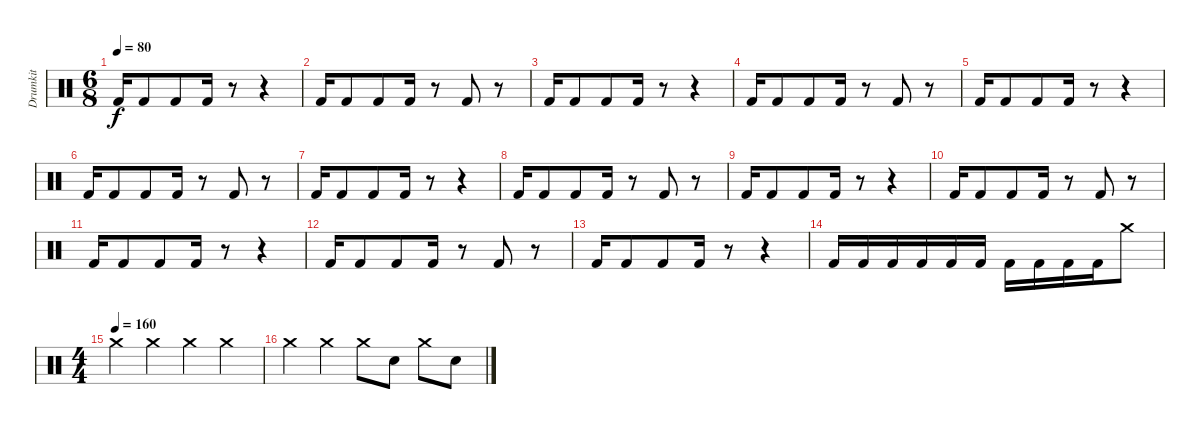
\track ("Drumkit" "Drumkit") {instrument percussion}
\staff {score}
\articulation defaults
\ts (6 8)
\tempo 80
\clef neutral
\ks c "Kick (hit) 2".16{dy f} "Kick (hit) 2".8 "Kick (hit) 2".8 "Kick (hit) 2".16
r.8 r.4 |
"Kick (hit) 2".16 "Kick (hit) 2".8 "Kick (hit) 2".8 "Kick (hit) 2".16 r.8 "Kick (hit) 2".8 r.8 |
"Kick (hit) 2".16 "Kick (hit) 2".8 "Kick (hit) 2".8 "Kick (hit) 2".16 r.8 r.4 |
"Kick (hit) 2".16 "Kick (hit) 2".8 "Kick (hit) 2".8 "Kick (hit) 2".16 r.8 "Kick (hit) 2".8 r.8 |
"Kick (hit) 2".16 "Kick (hit) 2".8 "Kick (hit) 2".8 "Kick (hit) 2".16 r.8 r.4 |
"Kick (hit) 2".16 "Kick (hit) 2".8 "Kick (hit) 2".8 "Kick (hit) 2".16 r.8 "Kick (hit) 2".8 r.8 |
"Kick (hit) 2".16 "Kick (hit) 2".8 "Kick (hit) 2".8 "Kick (hit) 2".16 r.8 r.4 |
"Kick (hit) 2".16 "Kick (hit) 2".8 "Kick (hit) 2".8 "Kick (hit) 2".16 r.8 "Kick (hit) 2".8 r.8 |
"Kick (hit) 2".16 "Kick (hit) 2".8 "Kick (hit) 2".8 "Kick (hit) 2".16 r.8 r.4 |
"Kick (hit) 2".16 "Kick (hit) 2".8 "Kick (hit) 2".8 "Kick (hit) 2".16 r.8 "Kick (hit) 2".8 r.8 |
"Kick (hit) 2".16 "Kick (hit) 2".8 "Kick (hit) 2".8 "Kick (hit) 2".16 r.8 r.4 |
"Kick (hit) 2".16 "Kick (hit) 2".8 "Kick (hit) 2".8 "Kick (hit) 2".16 r.8 "Kick (hit) 2".8 r.8 |
"Kick (hit) 2".16 "Kick (hit) 2".8 "Kick (hit) 2".8 "Kick (hit) 2".16 r.8 r.4 |
"Kick (hit) 2".16 "Kick (hit) 2".16 "Kick (hit) 2".16 "Kick (hit) 2".16 "Kick (hit) 2".16 "Kick (hit) 2".16 "Kick (hit) 2".16 "Kick (hit) 2".16 "Kick (hit) 2".16 "Kick (hit) 2".16 "Crash medium (hit)".8 |
\ts (4 4)
\tempo (160)
"Crash medium (hit)".4 "Crash medium (hit)".4 "Crash medium (hit)".4 "Crash medium (hit)".4 |
"Crash medium (hit)".4 "Crash medium (hit)".4 "Crash medium (hit)".8 "Snare (hit) 2".8 "Crash medium (hit)".8 "Snare (hit) 2".8
